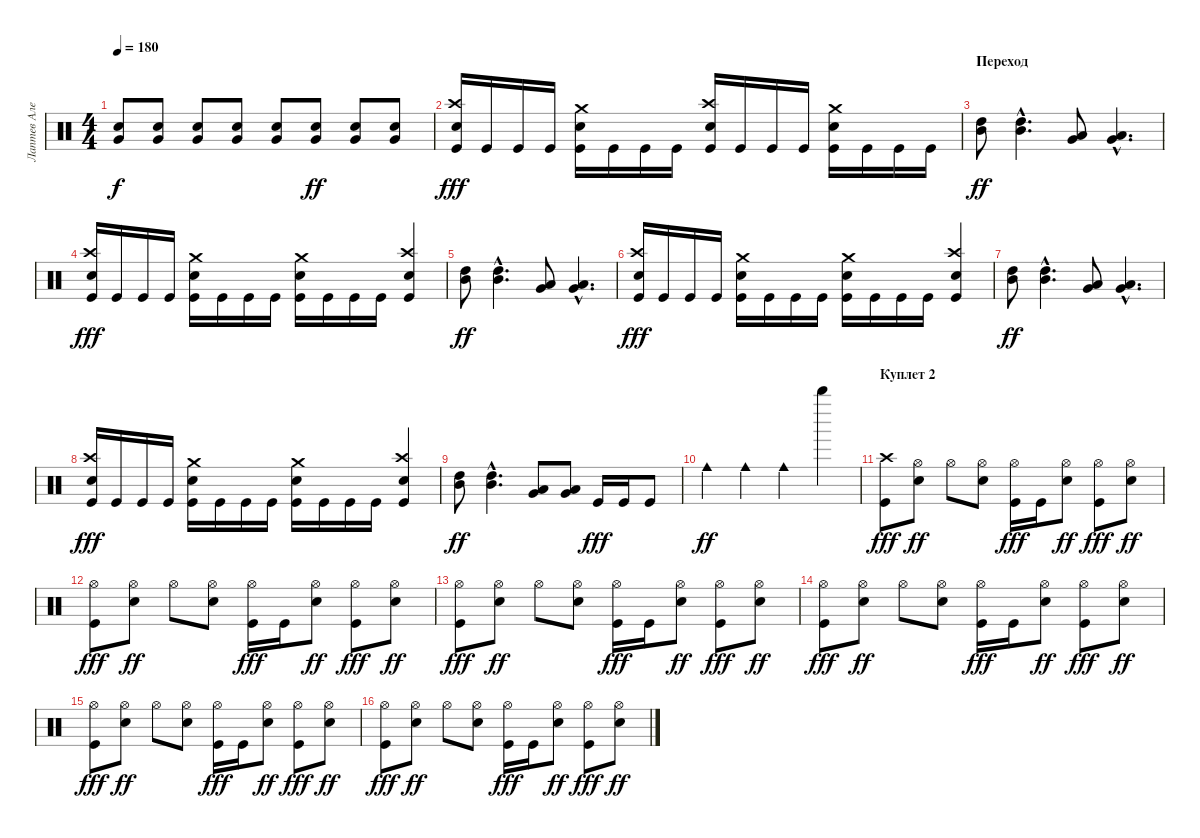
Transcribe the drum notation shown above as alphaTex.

\track ("Лаптев Алексей" "Лаптев Але") {instrument percussion}
\staff {score}
\articulation defaults
\ts (4 4)
\tempo 180
\clef neutral
\ks c
("Very Low Tom (hit)" "Snare (hit) 2").8{dy f} ("Very Low Tom (hit)" "Snare (hit) 2").8 ("Very Low Tom (hit)" "Snare (hit) 2").8 ("Very Low Tom (hit)" "Snare (hit) 2").8 ("Very Low Tom (hit)" "Snare (hit) 2").8 ("Very Low Tom (hit)" "Snare (hit) 2").8{dy ff} ("Very Low Tom (hit)" "Snare (hit) 2").8 ("Very Low Tom (hit)" "Snare (hit) 2").8 |
("Electric Snare (hit)" "Crash high (hit)" "Kick (hit)").16{dy fff} "Kick (hit)".16 "Kick (hit)".16 "Kick (hit)".16 ("Electric Snare (hit)" "Crash medium (hit)" "Kick (hit)").16 "Kick (hit)".16 "Kick (hit)".16 "Kick (hit)".16 ("Electric Snare (hit)" "Crash high (hit)" "Kick (hit)").16 "Kick (hit)".16 "Kick (hit)".16 "Kick (hit)".16 ("Electric Snare (hit)" "Crash medium (hit)" "Kick (hit)").16 "Kick (hit)".16 "Kick (hit)".16 "Kick (hit)".16 |
\section ("" "Переход")
("Mid Tom (hit)" "High Tom (hit)").8{dy ff} ("Mid Tom (hit)"{hac} "High Tom (hit)"{hac}).4{d} ("Very Low Tom (hit)" "Low Tom (hit)").8 ("Very Low Tom (hit)"{hac} "Low Tom (hit)"{hac}).4{d} |
("Electric Snare (hit)" "Crash high (hit)" "Kick (hit)").16{dy fff} "Kick (hit)".16 "Kick (hit)".16 "Kick (hit)".16 ("Electric Snare (hit)" "Crash medium (hit)" "Kick (hit)").16 "Kick (hit)".16 "Kick (hit)".16 "Kick (hit)".16 ("Electric Snare (hit)" "Crash medium (hit)" "Kick (hit)").16 "Kick (hit)".16 "Kick (hit)".16 "Kick (hit)".16 ("Electric Snare (hit)" "Crash high (hit)" "Kick (hit)").4 |
("Mid Tom (hit)" "High Tom (hit)").8{dy ff} ("Mid Tom (hit)"{hac} "High Tom (hit)"{hac}).4{d} ("Very Low Tom (hit)" "Low Tom (hit)").8 ("Very Low Tom (hit)"{hac} "Low Tom (hit)"{hac}).4{d} |
("Snare (hit) 2" "Crash high (hit)" "Kick (hit)").16{dy fff} "Kick (hit)".16 "Kick (hit)".16 "Kick (hit)".16 ("Crash medium (hit)" "Snare (hit) 2" "Kick (hit)").16 "Kick (hit)".16 "Kick (hit)".16 "Kick (hit)".16 ("Snare (hit) 2" "Crash medium (hit)" "Kick (hit)").16 "Kick (hit)".16 "Kick (hit)".16 "Kick (hit)".16 ("Snare (hit) 2" "Crash high (hit)" "Kick (hit)").4 |
("Mid Tom (hit)" "High Tom (hit)").8{dy ff} ("Mid Tom (hit)"{hac} "High Tom (hit)"{hac}).4{d} ("Very Low Tom (hit)" "Low Tom (hit)").8 ("Very Low Tom (hit)"{hac} "Low Tom (hit)"{hac}).4{d} |
("Snare (hit) 2" "Crash high (hit)" "Kick (hit)").16{dy fff} "Kick (hit)".16 "Kick (hit)".16 "Kick (hit)".16 ("Snare (hit) 2" "Crash medium (hit)" "Kick (hit)").16 "Kick (hit)".16 "Kick (hit)".16 "Kick (hit)".16 ("Snare (hit) 2" "Crash medium (hit)" "Kick (hit)").16 "Kick (hit)".16 "Kick (hit)".16 "Kick (hit)".16 ("Snare (hit) 2" "Crash high (hit)" "Kick (hit)").4 |
("High Tom (hit)" "Mid Tom (hit)").8{dy ff} ("High Tom (hit)"{hac} "Mid Tom (hit)"{hac}).4{d} ("Very Low Tom (hit)" "Low Tom (hit)").8 ("Very Low Tom (hit)" "Low Tom (hit)").8 "Kick (hit)".16{dy fff} "Kick (hit)".16 "Kick (hit)".8 |
"Cowbell medium (hit)".4{dy ff} "Cowbell medium (hit)".4 "Cowbell medium (hit)".4 "Whistle high (hit)".4 |
\section ("" "Куплет 2")
("Crash high (hit)" "Kick (hit)").8{dy fff} ("Hi-Hat (open)" "Snare (hit) 2").8{dy ff} "Hi-Hat (open)".8 ("Snare (hit) 2" "Hi-Hat (open)").8 ("Hi-Hat (open)" "Kick (hit)").16{dy fff} "Kick (hit)".16 ("Hi-Hat (open)" "Snare (hit) 2").8{dy ff} ("Hi-Hat (open)" "Kick (hit)").8{dy fff} ("Hi-Hat (open)" "Snare (hit) 2").8{dy ff} |
("Hi-Hat (open)" "Kick (hit)").8{dy fff} ("Hi-Hat (open)" "Snare (hit) 2").8{dy ff} "Hi-Hat (open)".8 ("Snare (hit) 2" "Hi-Hat (open)").8 ("Hi-Hat (open)" "Kick (hit)").16{dy fff} "Kick (hit)".16 ("Hi-Hat (open)" "Snare (hit) 2").8{dy ff} ("Hi-Hat (open)" "Kick (hit)").8{dy fff} ("Hi-Hat (open)" "Snare (hit) 2").8{dy ff} |
("Hi-Hat (open)" "Kick (hit)").8{dy fff} ("Hi-Hat (open)" "Snare (hit) 2").8{dy ff} "Hi-Hat (open)".8 ("Snare (hit) 2" "Hi-Hat (open)").8 ("Hi-Hat (open)" "Kick (hit)").16{dy fff} "Kick (hit)".16 ("Hi-Hat (open)" "Snare (hit) 2").8{dy ff} ("Hi-Hat (open)" "Kick (hit)").8{dy fff} ("Hi-Hat (open)" "Snare (hit) 2").8{dy ff} |
("Hi-Hat (open)" "Kick (hit)").8{dy fff} ("Hi-Hat (open)" "Snare (hit) 2").8{dy ff} "Hi-Hat (open)".8 ("Snare (hit) 2" "Hi-Hat (open)").8 ("Hi-Hat (open)" "Kick (hit)").16{dy fff} "Kick (hit)".16 ("Hi-Hat (open)" "Snare (hit) 2").8{dy ff} ("Hi-Hat (open)" "Kick (hit)").8{dy fff} ("Hi-Hat (open)" "Snare (hit) 2").8{dy ff} |
("Hi-Hat (open)" "Kick (hit)").8{dy fff} ("Hi-Hat (open)" "Snare (hit) 2").8{dy ff} "Hi-Hat (open)".8 ("Snare (hit) 2" "Hi-Hat (open)").8 ("Hi-Hat (open)" "Kick (hit)").16{dy fff} "Kick (hit)".16 ("Hi-Hat (open)" "Snare (hit) 2").8{dy ff} ("Hi-Hat (open)" "Kick (hit)").8{dy fff} ("Hi-Hat (open)" "Snare (hit) 2").8{dy ff} |
("Hi-Hat (open)" "Kick (hit)").8{dy fff} ("Hi-Hat (open)" "Snare (hit) 2").8{dy ff} "Hi-Hat (open)".8 ("Snare (hit) 2" "Hi-Hat (open)").8 ("Hi-Hat (open)" "Kick (hit)").16{dy fff} "Kick (hit)".16 ("Hi-Hat (open)" "Snare (hit) 2").8{dy ff} ("Hi-Hat (open)" "Kick (hit)").8{dy fff} ("Hi-Hat (open)" "Snare (hit) 2").8{dy ff}
